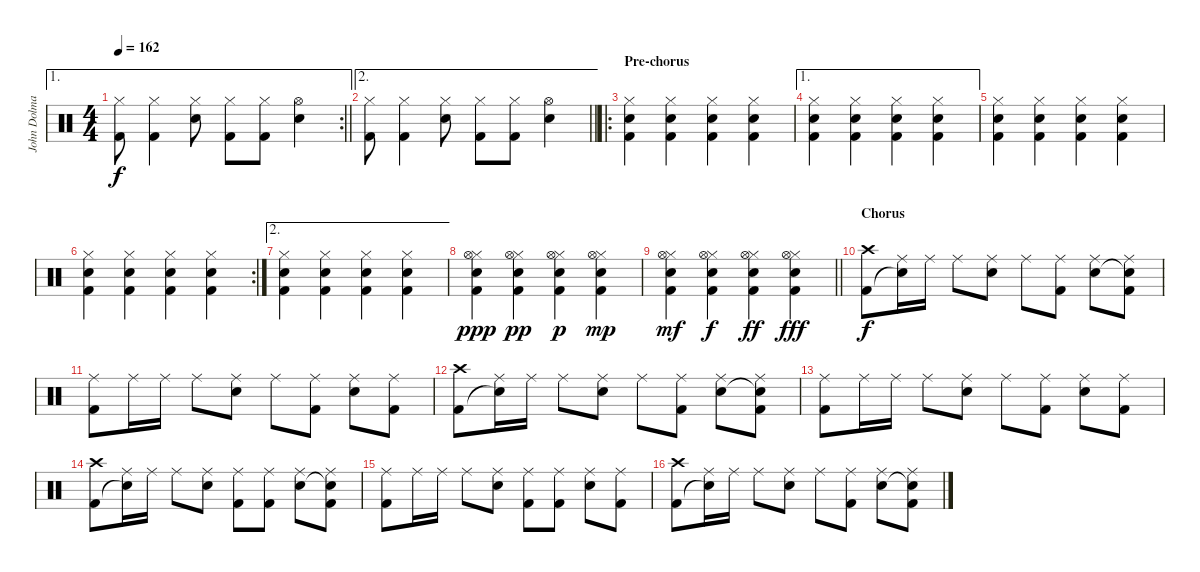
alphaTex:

\track ("John Dolmayan" "John Dolma") {instrument percussion}
\staff {score}
\articulation defaults
\ae 1
\rc 2
\ts (4 4)
\tempo 162
\clef neutral
\barLineRight lightlight
\ks c
("Hi-Hat (closed)" "Kick (hit) 2").8{dy f} ("Hi-Hat (closed)" "Kick (hit) 2").4 ("Hi-Hat (closed)" "Electric Snare (hit)").8 ("Hi-Hat (closed)" "Kick (hit) 2").8 ("Hi-Hat (closed)" "Kick (hit) 2").8 ("Hi-Hat (open)" "Electric Snare (hit)").4 |
\ae 2
\barLineRight lightlight
("Hi-Hat (closed)" "Kick (hit) 2").8 ("Hi-Hat (closed)" "Kick (hit) 2").4 ("Hi-Hat (closed)" "Electric Snare (hit)").8 ("Hi-Hat (closed)" "Kick (hit) 2").8 ("Hi-Hat (closed)" "Kick (hit) 2").8 ("Hi-Hat (open)" "Electric Snare (hit)").4 |
\ro
\section ("" "Pre-chorus")
("Hi-Hat (closed)" "Electric Snare (hit)" "Kick (hit) 2").4 ("Hi-Hat (closed)" "Electric Snare (hit)" "Kick (hit) 2").4 ("Hi-Hat (closed)" "Electric Snare (hit)" "Kick (hit) 2").4 ("Hi-Hat (closed)" "Electric Snare (hit)" "Kick (hit) 2").4 |
\ae 1
("Hi-Hat (closed)" "Electric Snare (hit)" "Kick (hit) 2").4 ("Hi-Hat (closed)" "Electric Snare (hit)" "Kick (hit) 2").4 ("Hi-Hat (closed)" "Electric Snare (hit)" "Kick (hit) 2").4 ("Hi-Hat (closed)" "Electric Snare (hit)" "Kick (hit) 2").4 |
("Hi-Hat (closed)" "Electric Snare (hit)" "Kick (hit) 2").4 ("Hi-Hat (closed)" "Electric Snare (hit)" "Kick (hit) 2").4 ("Hi-Hat (closed)" "Electric Snare (hit)" "Kick (hit) 2").4 ("Hi-Hat (closed)" "Electric Snare (hit)" "Kick (hit) 2").4 |
\rc 2
("Hi-Hat (closed)" "Electric Snare (hit)" "Kick (hit) 2").4 ("Hi-Hat (closed)" "Electric Snare (hit)" "Kick (hit) 2").4 ("Hi-Hat (closed)" "Electric Snare (hit)" "Kick (hit) 2").4 ("Hi-Hat (closed)" "Electric Snare (hit)" "Kick (hit) 2").4 |
\ae 2
("Hi-Hat (closed)" "Electric Snare (hit)" "Kick (hit) 2").4 ("Hi-Hat (closed)" "Electric Snare (hit)" "Kick (hit) 2").4 ("Hi-Hat (closed)" "Electric Snare (hit)" "Kick (hit) 2").4 ("Hi-Hat (closed)" "Electric Snare (hit)" "Kick (hit) 2").4 |
("Hi-Hat (closed)" "Hi-Hat (open)" "Electric Snare (hit)" "Kick (hit) 2").4{dy ppp} ("Hi-Hat (closed)" "Hi-Hat (open)" "Electric Snare (hit)" "Kick (hit) 2").4{dy pp} ("Hi-Hat (closed)" "Hi-Hat (open)" "Electric Snare (hit)" "Kick (hit) 2").4{dy p} ("Hi-Hat (closed)" "Hi-Hat (open)" "Electric Snare (hit)" "Kick (hit) 2").4{dy mp} |
\barLineRight lightlight
("Hi-Hat (closed)" "Hi-Hat (open)" "Electric Snare (hit)" "Kick (hit) 2").4{dy mf} ("Hi-Hat (closed)" "Hi-Hat (open)" "Electric Snare (hit)" "Kick (hit) 2").4{dy f} ("Hi-Hat (closed)" "Hi-Hat (open)" "Electric Snare (hit)" "Kick (hit) 2").4{dy ff} ("Hi-Hat (closed)" "Hi-Hat (open)" "Electric Snare (hit)" "Kick (hit) 2").4{dy fff} |
\section ("" "Chorus")
("Crash high (hit)" "Kick (hit) 2").8{dy f} ("Ride (middle)" "Snare (hit)"{t}).16 "Ride (middle)".16 "Ride (middle)".8 ("Ride (middle)" "Electric Snare (hit)").8 "Ride (middle)".8 ("Ride (middle)" "Kick (hit) 2").8 ("Ride (middle)" "Electric Snare (hit)").8 ("Ride (middle)" "Snare (hit)"{t} "Kick (hit) 2").8 |
("Ride (middle)" "Kick (hit) 2").8 "Ride (middle)".16 "Ride (middle)".16 "Ride (middle)".8 ("Ride (middle)" "Electric Snare (hit)").8 "Ride (middle)".8 ("Ride (middle)" "Kick (hit) 2").8 ("Ride (middle)" "Electric Snare (hit)").8 ("Ride (middle)" "Kick (hit) 2").8 |
("Crash high (hit)" "Kick (hit) 2").8 ("Ride (middle)" "Snare (hit)"{t}).16 "Ride (middle)".16 "Ride (middle)".8 ("Ride (middle)" "Electric Snare (hit)").8 "Ride (middle)".8 ("Ride (middle)" "Kick (hit) 2").8 ("Ride (middle)" "Electric Snare (hit)").8 ("Ride (middle)" "Snare (hit)"{t} "Kick (hit) 2").8 |
("Ride (middle)" "Kick (hit) 2").8 "Ride (middle)".16 "Ride (middle)".16 "Ride (middle)".8 ("Ride (middle)" "Electric Snare (hit)").8 "Ride (middle)".8 ("Ride (middle)" "Kick (hit) 2").8 ("Ride (middle)" "Electric Snare (hit)").8 ("Ride (middle)" "Kick (hit) 2").8 |
("Crash high (hit)" "Kick (hit) 2").8 ("Ride (middle)" "Snare (hit)"{t}).16 "Ride (middle)".16 "Ride (middle)".8 ("Ride (middle)" "Electric Snare (hit)").8 ("Ride (middle)" "Kick (hit) 2").8 ("Ride (middle)" "Kick (hit) 2").8 ("Ride (middle)" "Electric Snare (hit)").8 ("Ride (middle)" "Snare (hit)"{t} "Kick (hit) 2").8 |
("Ride (middle)" "Kick (hit) 2").8 "Ride (middle)".16 "Ride (middle)".16 "Ride (middle)".8 ("Ride (middle)" "Electric Snare (hit)").8 ("Ride (middle)" "Kick (hit) 2").8 ("Ride (middle)" "Kick (hit) 2").8 ("Ride (middle)" "Electric Snare (hit)").8 ("Ride (middle)" "Kick (hit) 2").8 |
("Crash high (hit)" "Kick (hit) 2").8 ("Ride (middle)" "Snare (hit)"{t}).16 "Ride (middle)".16 "Ride (middle)".8 ("Ride (middle)" "Electric Snare (hit)").8 "Ride (middle)".8 ("Ride (middle)" "Kick (hit) 2").8 ("Ride (middle)" "Electric Snare (hit)").8 ("Ride (middle)" "Snare (hit)"{t} "Kick (hit) 2").8
